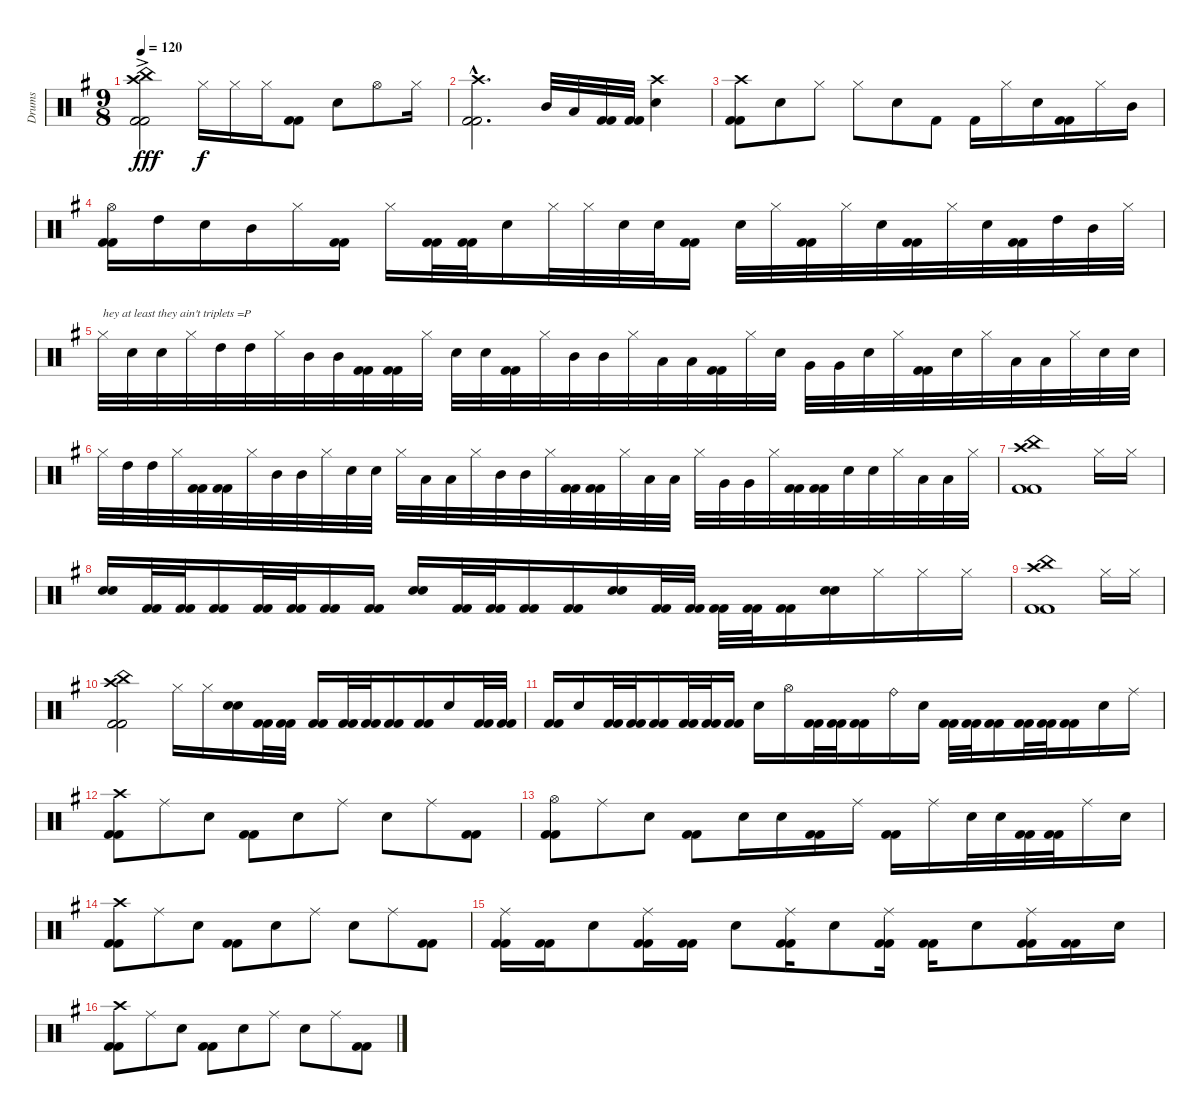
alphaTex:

\track ("Drums" "Drums") {instrument percussion}
\staff {score}
\articulation defaults
\ts (9 8)
\tempo 120
\clef neutral
\ks g
("China (hit)"{ac} "Crash high (hit)" "Kick (hit) 2" "Kick (hit) 2").2{dy fff} "Hi-Hat (closed)".16{dy f} "Hi-Hat (closed)".16 "Hi-Hat (closed)".16 ("Kick (hit) 2" "Kick (hit) 2").8 "Electric Snare (hit)".8 "Hi-Hat (open)".8 "Hi-Hat (closed)".16 |
("Crash high (hit)"{hac} "Kick (hit) 2"{hac} "Kick (hit) 2"{hac}).2{d} "Mid Tom (hit)".32 "Low Tom (hit)".32 ("Kick (hit) 2" "Kick (hit) 2").32 ("Kick (hit) 2" "Kick (hit) 2").32 ("Crash high (hit)" "Electric Snare (hit)").4 |
("Crash high (hit)" "Kick (hit) 2" "Kick (hit) 2").8 "Electric Snare (hit)".8 "Hi-Hat (closed)".8 "Hi-Hat (closed)".8 "Electric Snare (hit)".8 "Kick (hit) 2".8 "Kick (hit) 2".16 "Hi-Hat (closed)".16 "Electric Snare (hit)".16 ("Kick (hit) 2" "Kick (hit) 2").16 "Hi-Hat (closed)".16 "Mid Tom (hit)".16 |
("Hi-Hat (open)" "Kick (hit) 2" "Kick (hit) 2").16 "High Tom (hit)".16 "Snare (hit) 2".16 "Mid Tom (hit)".16 "Hi-Hat (closed)".16 ("Kick (hit) 2" "Kick (hit) 2").16 "Hi-Hat (closed)".16 ("Kick (hit) 2" "Kick (hit) 2").32 ("Kick (hit) 2" "Kick (hit) 2").32 "Electric Snare (hit)".16 "Hi-Hat (closed)".32 "Hi-Hat (closed)".32 "Electric Snare (hit)".32 "Electric Snare (hit)".32 ("Kick (hit) 2" "Kick (hit) 2").16 "Electric Snare (hit)".32 "Hi-Hat (closed)".32 ("Kick (hit) 2" "Kick (hit) 2").32 "Hi-Hat (closed)".32 "Electric Snare (hit)".32 ("Kick (hit) 2" "Kick (hit) 2").32 "Hi-Hat (closed)".32 "Electric Snare (hit)".32 ("Kick (hit) 2" "Kick (hit) 2").32 "High Tom (hit)".32 "Mid Tom (hit)".32 "Hi-Hat (closed)".32 |
"Hi-Hat (closed)".32{txt "hey at least they ain't triplets =P"} "Electric Snare (hit)".32 "Electric Snare (hit)".32 "Hi-Hat (closed)".32 "High Tom (hit)".32 "High Tom (hit)".32 "Hi-Hat (closed)".32 "Mid Tom (hit)".32 "Mid Tom (hit)".32 ("Kick (hit) 2" "Kick (hit) 2").32 ("Kick (hit) 2" "Kick (hit) 2").32 "Hi-Hat (closed)".32 "Electric Snare (hit)".32 "Electric Snare (hit)".32 ("Kick (hit) 2" "Kick (hit) 2").32 "Hi-Hat (closed)".32 "Mid Tom (hit)".32 "Mid Tom (hit)".32 "Hi-Hat (closed)".32 "Low Tom (hit)".32 "Low Tom (hit)".32 ("Kick (hit) 2" "Kick (hit) 2").32 "Hi-Hat (closed)".32 "Electric Snare (hit)".32 "Very Low Tom (hit)".32 "Very Low Tom (hit)".32 "Electric Snare (hit)".32 "Hi-Hat (closed)".32 ("Kick (hit) 2" "Kick (hit) 2").32 "Electric Snare (hit)".32 "Hi-Hat (closed)".32 "Low Floor Tom (hit)".32 "Low Floor Tom (hit)".32 "Hi-Hat (closed)".32 "Electric Snare (hit)".32 "Electric Snare (hit)".32 |
"Hi-Hat (closed)".32 "High Tom (hit)".32 "High Tom (hit)".32 "Hi-Hat (closed)".32 ("Kick (hit) 2" "Kick (hit) 2").32 ("Kick (hit) 2" "Kick (hit) 2").32 "Hi-Hat (closed)".32 "Mid Tom (hit)".32 "Mid Tom (hit)".32 "Hi-Hat (closed)".32 "Electric Snare (hit)".32 "Electric Snare (hit)".32 "Hi-Hat (closed)".32 "Low Tom (hit)".32 "Low Tom (hit)".32 "Hi-Hat (closed)".32 "Mid Tom (hit)".32 "Mid Tom (hit)".32 "Hi-Hat (closed)".32 ("Kick (hit) 2" "Kick (hit) 2").32 ("Kick (hit) 2" "Kick (hit) 2").32 "Hi-Hat (closed)".32 "Low Tom (hit)".32 "Low Tom (hit)".32 "Hi-Hat (closed)".32 "Very Low Tom (hit)".32 "Very Low Tom (hit)".32 "Hi-Hat (closed)".32 ("Kick (hit) 2" "Kick (hit) 2").32 ("Kick (hit) 2" "Kick (hit) 2").32 "Electric Snare (hit)".32 "Electric Snare (hit)".32 "Hi-Hat (closed)".32 "Low Floor Tom (hit)".32 "Low Floor Tom (hit)".32 "Hi-Hat (closed)".32 |
("Crash high (hit)" "China (hit)" "Kick (hit) 2" "Kick (hit) 2").1 "Hi-Hat (closed)".16 "Hi-Hat (closed)".16 |
("Electric Snare (hit)" "Electric Snare (hit)").16 ("Kick (hit) 2" "Kick (hit) 2").32 ("Kick (hit) 2" "Kick (hit) 2").32 ("Kick (hit) 2" "Kick (hit) 2").16 ("Kick (hit) 2" "Kick (hit) 2").32 ("Kick (hit) 2" "Kick (hit) 2").32 ("Kick (hit) 2" "Kick (hit) 2").16 ("Kick (hit) 2" "Kick (hit) 2").16 ("Electric Snare (hit)" "Electric Snare (hit)").16 ("Kick (hit) 2" "Kick (hit) 2").32 ("Kick (hit) 2" "Kick (hit) 2").32 ("Kick (hit) 2" "Kick (hit) 2").16 ("Kick (hit) 2" "Kick (hit) 2").16 ("Electric Snare (hit)" "Electric Snare (hit)").16 ("Kick (hit) 2" "Kick (hit) 2").32 ("Kick (hit) 2" "Kick (hit) 2").32 ("Kick (hit) 2" "Kick (hit) 2").32 ("Kick (hit) 2" "Kick (hit) 2").32 ("Kick (hit) 2" "Kick (hit) 2").16 ("Electric Snare (hit)" "Electric Snare (hit)").16 "Hi-Hat (closed)".16 "Hi-Hat (closed)".16 "Hi-Hat (closed)".16 |
("Crash high (hit)" "China (hit)" "Kick (hit) 2" "Kick (hit) 2").1 "Hi-Hat (closed)".16 "Hi-Hat (closed)".16 |
("Crash high (hit)" "China (hit)" "Kick (hit) 2" "Kick (hit) 2").2 "Hi-Hat (closed)".16 "Hi-Hat (closed)".16 ("Electric Snare (hit)" "Electric Snare (hit)").16 ("Kick (hit) 2" "Kick (hit) 2").32 ("Kick (hit) 2" "Kick (hit) 2").32 ("Kick (hit) 2" "Kick (hit) 2").16 ("Kick (hit) 2" "Kick (hit) 2").32 ("Kick (hit) 2" "Kick (hit) 2").32 ("Kick (hit) 2" "Kick (hit) 2").16 ("Kick (hit) 2" "Kick (hit) 2").16 "Electric Snare (hit)".16 ("Kick (hit) 2" "Kick (hit) 2").32 ("Kick (hit) 2" "Kick (hit) 2").32 |
("Kick (hit) 2" "Kick (hit) 2").16 "Electric Snare (hit)".16 ("Kick (hit) 2" "Kick (hit) 2").32 ("Kick (hit) 2" "Kick (hit) 2").32 ("Kick (hit) 2" "Kick (hit) 2").16 ("Kick (hit) 2" "Kick (hit) 2").32 ("Kick (hit) 2" "Kick (hit) 2").32 ("Kick (hit) 2" "Kick (hit) 2").16 "Electric Snare (hit)".16 "Hi-Hat (open)".16 ("Kick (hit) 2" "Kick (hit) 2").32 ("Kick (hit) 2" "Kick (hit) 2").32 ("Kick (hit) 2" "Kick (hit) 2").16 "Ride (bell)".16 "Electric Snare (hit)".16 ("Kick (hit) 2" "Kick (hit) 2").32 ("Kick (hit) 2" "Kick (hit) 2").32 ("Kick (hit) 2" "Kick (hit) 2").16 ("Kick (hit) 2" "Kick (hit) 2").32 ("Kick (hit) 2" "Kick (hit) 2").32 ("Kick (hit) 2" "Kick (hit) 2").16 "Electric Snare (hit)".16 "Ride (middle)".16 |
("Crash high (hit)" "Kick (hit) 2" "Kick (hit) 2").8 "Ride (middle)".8 "Electric Snare (hit)".8 ("Kick (hit) 2" "Kick (hit) 2").8 "Electric Snare (hit)".8 "Ride (middle)".8 "Electric Snare (hit)".8 "Ride (middle)".8 ("Kick (hit) 2" "Kick (hit) 2").8 |
("Hi-Hat (open)" "Kick (hit) 2" "Kick (hit) 2").8 "Ride (middle)".8 "Electric Snare (hit)".8 ("Kick (hit) 2" "Kick (hit) 2").8 "Electric Snare (hit)".16 "Electric Snare (hit)".16 ("Kick (hit) 2" "Kick (hit) 2").16 "Ride (middle)".16 ("Kick (hit) 2" "Kick (hit) 2").16 "Ride (middle)".16 "Electric Snare (hit)".32 "Electric Snare (hit)".32 ("Kick (hit) 2" "Kick (hit) 2").32 ("Kick (hit) 2" "Kick (hit) 2").32 "Ride (middle)".16 "Electric Snare (hit)".16 |
("Crash high (hit)" "Kick (hit) 2" "Kick (hit) 2").8 "Ride (middle)".8 "Electric Snare (hit)".8 ("Kick (hit) 2" "Kick (hit) 2").8 "Electric Snare (hit)".8 "Ride (middle)".8 "Electric Snare (hit)".8 "Ride (middle)".8 ("Kick (hit) 2" "Kick (hit) 2").8 |
("Ride (middle)" "Kick (hit) 2" "Kick (hit) 2").16 ("Kick (hit) 2" "Kick (hit) 2").16 "Electric Snare (hit)".8 ("Ride (middle)" "Kick (hit) 2" "Kick (hit) 2").16 ("Kick (hit) 2" "Kick (hit) 2").16 "Electric Snare (hit)".8 ("Ride (middle)" "Kick (hit) 2" "Kick (hit) 2").16 "Electric Snare (hit)".8 ("Ride (middle)" "Kick (hit) 2" "Kick (hit) 2").16 ("Kick (hit) 2" "Kick (hit) 2").16 "Electric Snare (hit)".8 ("Ride (middle)" "Kick (hit) 2" "Kick (hit) 2").16 ("Kick (hit) 2" "Kick (hit) 2").16 "Electric Snare (hit)".16 |
("Crash high (hit)" "Kick (hit) 2" "Kick (hit) 2").8 "Ride (middle)".8 "Electric Snare (hit)".8 ("Kick (hit) 2" "Kick (hit) 2").8 "Electric Snare (hit)".8 "Ride (middle)".8 "Electric Snare (hit)".8 "Ride (middle)".8 ("Kick (hit) 2" "Kick (hit) 2").8
